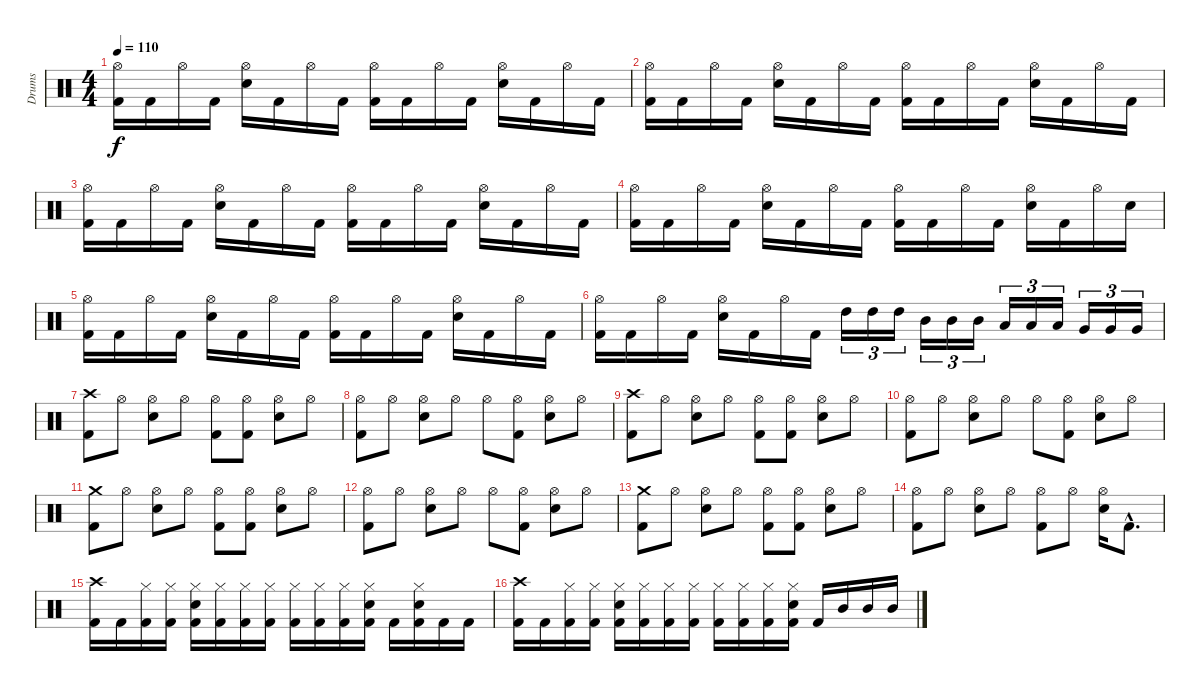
\track ("Drums" "Drums") {instrument percussion}
\staff {score}
\articulation defaults
\ts (4 4)
\tempo 110
\clef neutral
\ks c
("Hi-Hat (open)" "Kick (hit) 2").16{dy f} "Kick (hit) 2".16 "Hi-Hat (open)".16 "Kick (hit) 2".16 ("Hi-Hat (open)" "Electric Snare (hit)").16 "Kick (hit) 2".16 "Hi-Hat (open)".16 "Kick (hit) 2".16 ("Hi-Hat (open)" "Kick (hit) 2").16 "Kick (hit) 2".16 "Hi-Hat (open)".16 "Kick (hit) 2".16 ("Hi-Hat (open)" "Electric Snare (hit)").16 "Kick (hit) 2".16 "Hi-Hat (open)".16 "Kick (hit) 2".16 |
("Hi-Hat (open)" "Kick (hit) 2").16 "Kick (hit) 2".16 "Hi-Hat (open)".16 "Kick (hit) 2".16 ("Hi-Hat (open)" "Electric Snare (hit)").16 "Kick (hit) 2".16 "Hi-Hat (open)".16 "Kick (hit) 2".16 ("Hi-Hat (open)" "Kick (hit) 2").16 "Kick (hit) 2".16 "Hi-Hat (open)".16 "Kick (hit) 2".16 ("Hi-Hat (open)" "Electric Snare (hit)").16 "Kick (hit) 2".16 "Hi-Hat (open)".16 "Kick (hit) 2".16 |
("Hi-Hat (open)" "Kick (hit) 2").16 "Kick (hit) 2".16 "Hi-Hat (open)".16 "Kick (hit) 2".16 ("Hi-Hat (open)" "Electric Snare (hit)").16 "Kick (hit) 2".16 "Hi-Hat (open)".16 "Kick (hit) 2".16 ("Hi-Hat (open)" "Kick (hit) 2").16 "Kick (hit) 2".16 "Hi-Hat (open)".16 "Kick (hit) 2".16 ("Hi-Hat (open)" "Electric Snare (hit)").16 "Kick (hit) 2".16 "Hi-Hat (open)".16 "Kick (hit) 2".16 |
("Hi-Hat (open)" "Kick (hit) 2").16 "Kick (hit) 2".16 "Hi-Hat (open)".16 "Kick (hit) 2".16 ("Hi-Hat (open)" "Electric Snare (hit)").16 "Kick (hit) 2".16 "Hi-Hat (open)".16 "Kick (hit) 2".16 ("Hi-Hat (open)" "Kick (hit) 2").16 "Kick (hit) 2".16 "Hi-Hat (open)".16 "Kick (hit) 2".16 ("Hi-Hat (open)" "Electric Snare (hit)").16 "Kick (hit) 2".16 "Hi-Hat (open)".16 "Electric Snare (hit)".16 |
("Hi-Hat (open)" "Kick (hit) 2").16 "Kick (hit) 2".16 "Hi-Hat (open)".16 "Kick (hit) 2".16 ("Hi-Hat (open)" "Electric Snare (hit)").16 "Kick (hit) 2".16 "Hi-Hat (open)".16 "Kick (hit) 2".16 ("Hi-Hat (open)" "Kick (hit) 2").16 "Kick (hit) 2".16 "Hi-Hat (open)".16 "Kick (hit) 2".16 ("Hi-Hat (open)" "Electric Snare (hit)").16 "Kick (hit) 2".16 "Hi-Hat (open)".16 "Kick (hit) 2".16 |
("Hi-Hat (open)" "Kick (hit) 2").16 "Kick (hit) 2".16 "Hi-Hat (open)".16 "Kick (hit) 2".16 ("Hi-Hat (open)" "Electric Snare (hit)").16 "Kick (hit) 2".16 "Hi-Hat (open)".16 "Kick (hit) 2".16 "High Tom (hit)".16{tu (3 2)} "High Tom (hit)".16{tu (3 2)} "High Tom (hit)".16{tu (3 2)} "Mid Tom (hit)".16{tu (3 2)} "Mid Tom (hit)".16{tu (3 2)} "Mid Tom (hit)".16{tu (3 2)} "Low Tom (hit)".16{tu (3 2)} "Low Tom (hit)".16{tu (3 2)} "Low Tom (hit)".16{tu (3 2)} "Very Low Tom (hit)".16{tu (3 2)} "Very Low Tom (hit)".16{tu (3 2)} "Very Low Tom (hit)".16{tu (3 2)} |
("Crash high (hit)" "Kick (hit) 2").8 "Hi-Hat (open)".8 ("Hi-Hat (open)" "Electric Snare (hit)").8 "Hi-Hat (open)".8 ("Hi-Hat (open)" "Kick (hit) 2").8 ("Hi-Hat (open)" "Kick (hit) 2").8 ("Hi-Hat (open)" "Electric Snare (hit)").8 "Hi-Hat (open)".8 |
("Hi-Hat (open)" "Kick (hit) 2").8 "Hi-Hat (open)".8 ("Hi-Hat (open)" "Electric Snare (hit)").8 "Hi-Hat (open)".8 "Hi-Hat (open)".8 ("Hi-Hat (open)" "Kick (hit) 2").8 ("Hi-Hat (open)" "Electric Snare (hit)").8 "Hi-Hat (open)".8 |
("Crash high (hit)" "Kick (hit) 2").8 "Hi-Hat (open)".8 ("Hi-Hat (open)" "Electric Snare (hit)").8 "Hi-Hat (open)".8 ("Hi-Hat (open)" "Kick (hit) 2").8 ("Hi-Hat (open)" "Kick (hit) 2").8 ("Hi-Hat (open)" "Electric Snare (hit)").8 "Hi-Hat (open)".8 |
("Hi-Hat (open)" "Kick (hit) 2").8 "Hi-Hat (open)".8 ("Hi-Hat (open)" "Electric Snare (hit)").8 "Hi-Hat (open)".8 "Hi-Hat (open)".8 ("Hi-Hat (open)" "Kick (hit) 2").8 ("Hi-Hat (open)" "Electric Snare (hit)").8 "Hi-Hat (open)".8 |
("Crash medium (hit)" "Kick (hit) 2").8 "Hi-Hat (open)".8 ("Hi-Hat (open)" "Electric Snare (hit)").8 "Hi-Hat (open)".8 ("Hi-Hat (open)" "Kick (hit) 2").8 ("Hi-Hat (open)" "Kick (hit) 2").8 ("Hi-Hat (open)" "Electric Snare (hit)").8 "Hi-Hat (open)".8 |
("Hi-Hat (open)" "Kick (hit) 2").8 "Hi-Hat (open)".8 ("Hi-Hat (open)" "Electric Snare (hit)").8 "Hi-Hat (open)".8 "Hi-Hat (open)".8 ("Hi-Hat (open)" "Kick (hit) 2").8 ("Hi-Hat (open)" "Electric Snare (hit)").8 "Hi-Hat (open)".8 |
("Crash medium (hit)" "Kick (hit) 2").8 "Hi-Hat (open)".8 ("Hi-Hat (open)" "Electric Snare (hit)").8 "Hi-Hat (open)".8 ("Hi-Hat (open)" "Kick (hit) 2").8 ("Hi-Hat (open)" "Kick (hit) 2").8 ("Hi-Hat (open)" "Electric Snare (hit)").8 "Hi-Hat (open)".8 |
("Hi-Hat (open)" "Kick (hit) 2").8 "Hi-Hat (open)".8 ("Hi-Hat (open)" "Electric Snare (hit)").8 "Hi-Hat (open)".8 ("Hi-Hat (open)" "Kick (hit) 2").8 "Hi-Hat (open)".8 ("Hi-Hat (open)" "Electric Snare (hit)").16 "Kick (hit) 2"{hac}.8{d} |
("Crash high (hit)" "Kick (hit) 2").16 "Kick (hit) 2".16 ("Hi-Hat (closed)" "Kick (hit) 2").16 ("Hi-Hat (closed)" "Kick (hit) 2").16 ("Hi-Hat (closed)" "Electric Snare (hit)" "Kick (hit) 2").16 ("Hi-Hat (closed)" "Kick (hit) 2").16 ("Hi-Hat (closed)" "Kick (hit) 2").16 ("Hi-Hat (closed)" "Kick (hit) 2").16 ("Hi-Hat (closed)" "Kick (hit) 2").16 ("Hi-Hat (closed)" "Kick (hit) 2").16 ("Hi-Hat (closed)" "Kick (hit) 2").16 ("Hi-Hat (closed)" "Electric Snare (hit)" "Kick (hit) 2").16 "Kick (hit) 2".16 ("Hi-Hat (closed)" "Electric Snare (hit)" "Kick (hit) 2").16 "Kick (hit) 2".16 "Kick (hit) 2".16 |
("Crash high (hit)" "Kick (hit) 2").16 "Kick (hit) 2".16 ("Hi-Hat (closed)" "Kick (hit) 2").16 ("Hi-Hat (closed)" "Kick (hit) 2").16 ("Hi-Hat (closed)" "Electric Snare (hit)" "Kick (hit) 2").16 ("Hi-Hat (closed)" "Kick (hit) 2").16 ("Hi-Hat (closed)" "Kick (hit) 2").16 ("Hi-Hat (closed)" "Kick (hit) 2").16 ("Hi-Hat (closed)" "Kick (hit) 2").16 ("Hi-Hat (closed)" "Kick (hit) 2").16 ("Hi-Hat (closed)" "Kick (hit) 2").16 ("Hi-Hat (closed)" "Electric Snare (hit)" "Kick (hit) 2").16 "Kick (hit) 2".16 "Mid Tom (hit)".16 "Mid Tom (hit)".16 "Mid Tom (hit)".16
